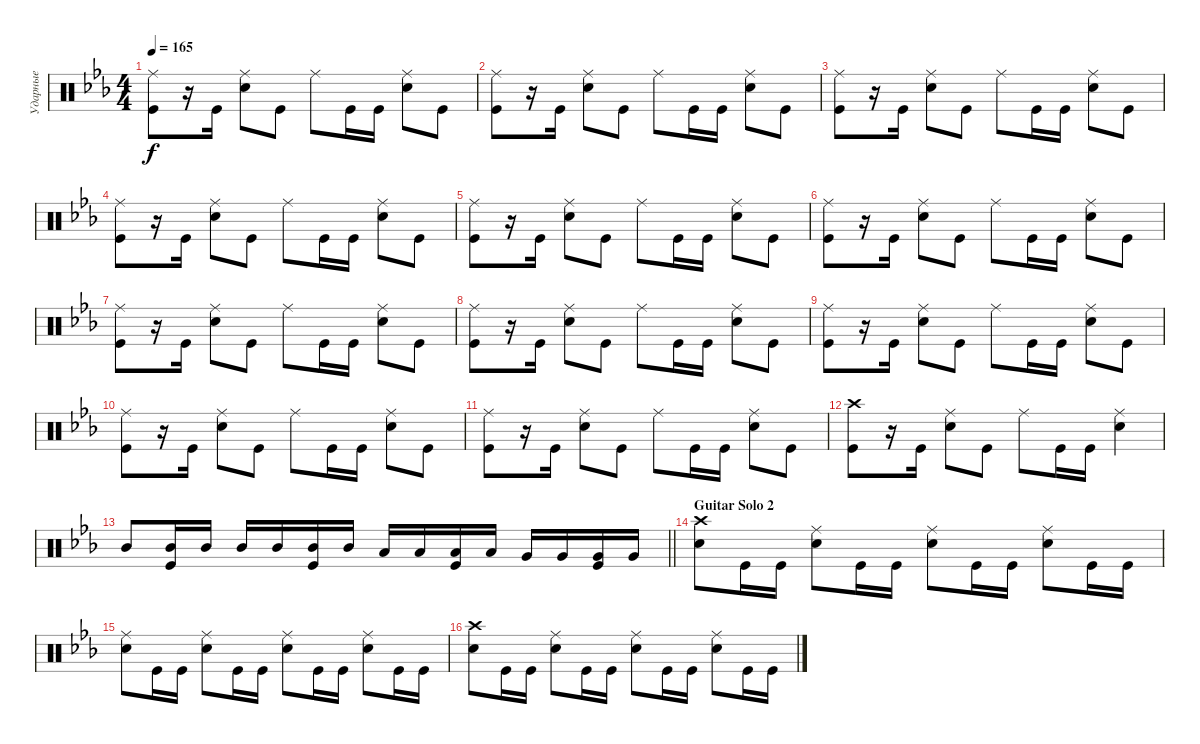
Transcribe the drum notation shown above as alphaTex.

\track ("Ударные" "Ударные") {instrument percussion}
\staff {score}
\articulation defaults
\ts (4 4)
\tempo 165
\clef neutral
\ks cminor
("Kick (hit)" "Ride (middle)").8{dy f} r.16 "Kick (hit)".16 ("Snare (hit) 2" "Ride (middle)").8 "Kick (hit)".8 "Ride (middle)".8 "Kick (hit)".16 "Kick (hit)".16 ("Snare (hit) 2" "Ride (middle)").8 "Kick (hit)".8 |
("Kick (hit)" "Ride (middle)").8 r.16 "Kick (hit)".16 ("Snare (hit) 2" "Ride (middle)").8 "Kick (hit)".8 "Ride (middle)".8 "Kick (hit)".16 "Kick (hit)".16 ("Snare (hit) 2" "Ride (middle)").8 "Kick (hit)".8 |
("Kick (hit)" "Ride (middle)").8 r.16 "Kick (hit)".16 ("Snare (hit) 2" "Ride (middle)").8 "Kick (hit)".8 "Ride (middle)".8 "Kick (hit)".16 "Kick (hit)".16 ("Snare (hit) 2" "Ride (middle)").8 "Kick (hit)".8 |
("Kick (hit)" "Ride (middle)").8 r.16 "Kick (hit)".16 ("Snare (hit) 2" "Ride (middle)").8 "Kick (hit)".8 "Ride (middle)".8 "Kick (hit)".16 "Kick (hit)".16 ("Snare (hit) 2" "Ride (middle)").8 "Kick (hit)".8 |
("Kick (hit)" "Ride (middle)").8 r.16 "Kick (hit)".16 ("Snare (hit) 2" "Ride (middle)").8 "Kick (hit)".8 "Ride (middle)".8 "Kick (hit)".16 "Kick (hit)".16 ("Snare (hit) 2" "Ride (middle)").8 "Kick (hit)".8 |
("Kick (hit)" "Ride (middle)").8 r.16 "Kick (hit)".16 ("Snare (hit) 2" "Ride (middle)").8 "Kick (hit)".8 "Ride (middle)".8 "Kick (hit)".16 "Kick (hit)".16 ("Snare (hit) 2" "Ride (middle)").8 "Kick (hit)".8 |
("Kick (hit)" "Ride (middle)").8 r.16 "Kick (hit)".16 ("Snare (hit) 2" "Ride (middle)").8 "Kick (hit)".8 "Ride (middle)".8 "Kick (hit)".16 "Kick (hit)".16 ("Snare (hit) 2" "Ride (middle)").8 "Kick (hit)".8 |
("Kick (hit)" "Ride (middle)").8 r.16 "Kick (hit)".16 ("Snare (hit) 2" "Ride (middle)").8 "Kick (hit)".8 "Ride (middle)".8 "Kick (hit)".16 "Kick (hit)".16 ("Snare (hit) 2" "Ride (middle)").8 "Kick (hit)".8 |
("Kick (hit)" "Ride (middle)").8 r.16 "Kick (hit)".16 ("Snare (hit) 2" "Ride (middle)").8 "Kick (hit)".8 "Ride (middle)".8 "Kick (hit)".16 "Kick (hit)".16 ("Snare (hit) 2" "Ride (middle)").8 "Kick (hit)".8 |
("Kick (hit)" "Ride (middle)").8 r.16 "Kick (hit)".16 ("Snare (hit) 2" "Ride (middle)").8 "Kick (hit)".8 "Ride (middle)".8 "Kick (hit)".16 "Kick (hit)".16 ("Snare (hit) 2" "Ride (middle)").8 "Kick (hit)".8 |
("Kick (hit)" "Ride (middle)").8 r.16 "Kick (hit)".16 ("Snare (hit) 2" "Ride (middle)").8 "Kick (hit)".8 "Ride (middle)".8 "Kick (hit)".16 "Kick (hit)".16 ("Snare (hit) 2" "Ride (middle)").8 "Kick (hit)".8 |
("Kick (hit)" "Crash high (hit)").8 r.16 "Kick (hit)".16 ("Snare (hit) 2" "Ride (middle)").8 "Kick (hit)".8 "Ride (middle)".8 "Kick (hit)".16 "Kick (hit)".16 ("Snare (hit) 2" "Ride (middle)").4 |
\barLineRight lightlight "Mid Tom (hit)".8
("Mid Tom (hit)" "Kick (hit)").16 "Mid Tom (hit)".16 "Mid Tom (hit)".16 "Mid Tom (hit)".16 ("Mid Tom (hit)" "Kick (hit)").16 "Mid Tom (hit)".16 "Low Tom (hit)".16 "Low Tom (hit)".16 ("Low Tom (hit)" "Kick (hit)").16 "Low Tom (hit)".16 "Very Low Tom (hit)".16 "Very Low Tom (hit)".16 ("Very Low Tom (hit)" "Kick (hit)").16 "Very Low Tom (hit)".16 |
\section ("" "Guitar Solo 2")
("Snare (hit) 2" "Crash high (hit)").8 "Kick (hit)".16 "Kick (hit)".16 ("Snare (hit) 2" "Ride (middle)").8 "Kick (hit)".16 "Kick (hit)".16 ("Snare (hit) 2" "Ride (middle)").8 "Kick (hit)".16 "Kick (hit)".16 ("Snare (hit) 2" "Ride (middle)").8 "Kick (hit)".16 "Kick (hit)".16 |
("Snare (hit) 2" "Ride (middle)").8 "Kick (hit)".16 "Kick (hit)".16 ("Snare (hit) 2" "Ride (middle)").8 "Kick (hit)".16 "Kick (hit)".16 ("Snare (hit) 2" "Ride (middle)").8 "Kick (hit)".16 "Kick (hit)".16 ("Snare (hit) 2" "Ride (middle)").8 "Kick (hit)".16 "Kick (hit)".16 |
("Snare (hit) 2" "Crash high (hit)").8 "Kick (hit)".16 "Kick (hit)".16 ("Snare (hit) 2" "Ride (middle)").8 "Kick (hit)".16 "Kick (hit)".16 ("Snare (hit) 2" "Ride (middle)").8 "Kick (hit)".16 "Kick (hit)".16 ("Snare (hit) 2" "Ride (middle)").8 "Kick (hit)".16 "Kick (hit)".16
